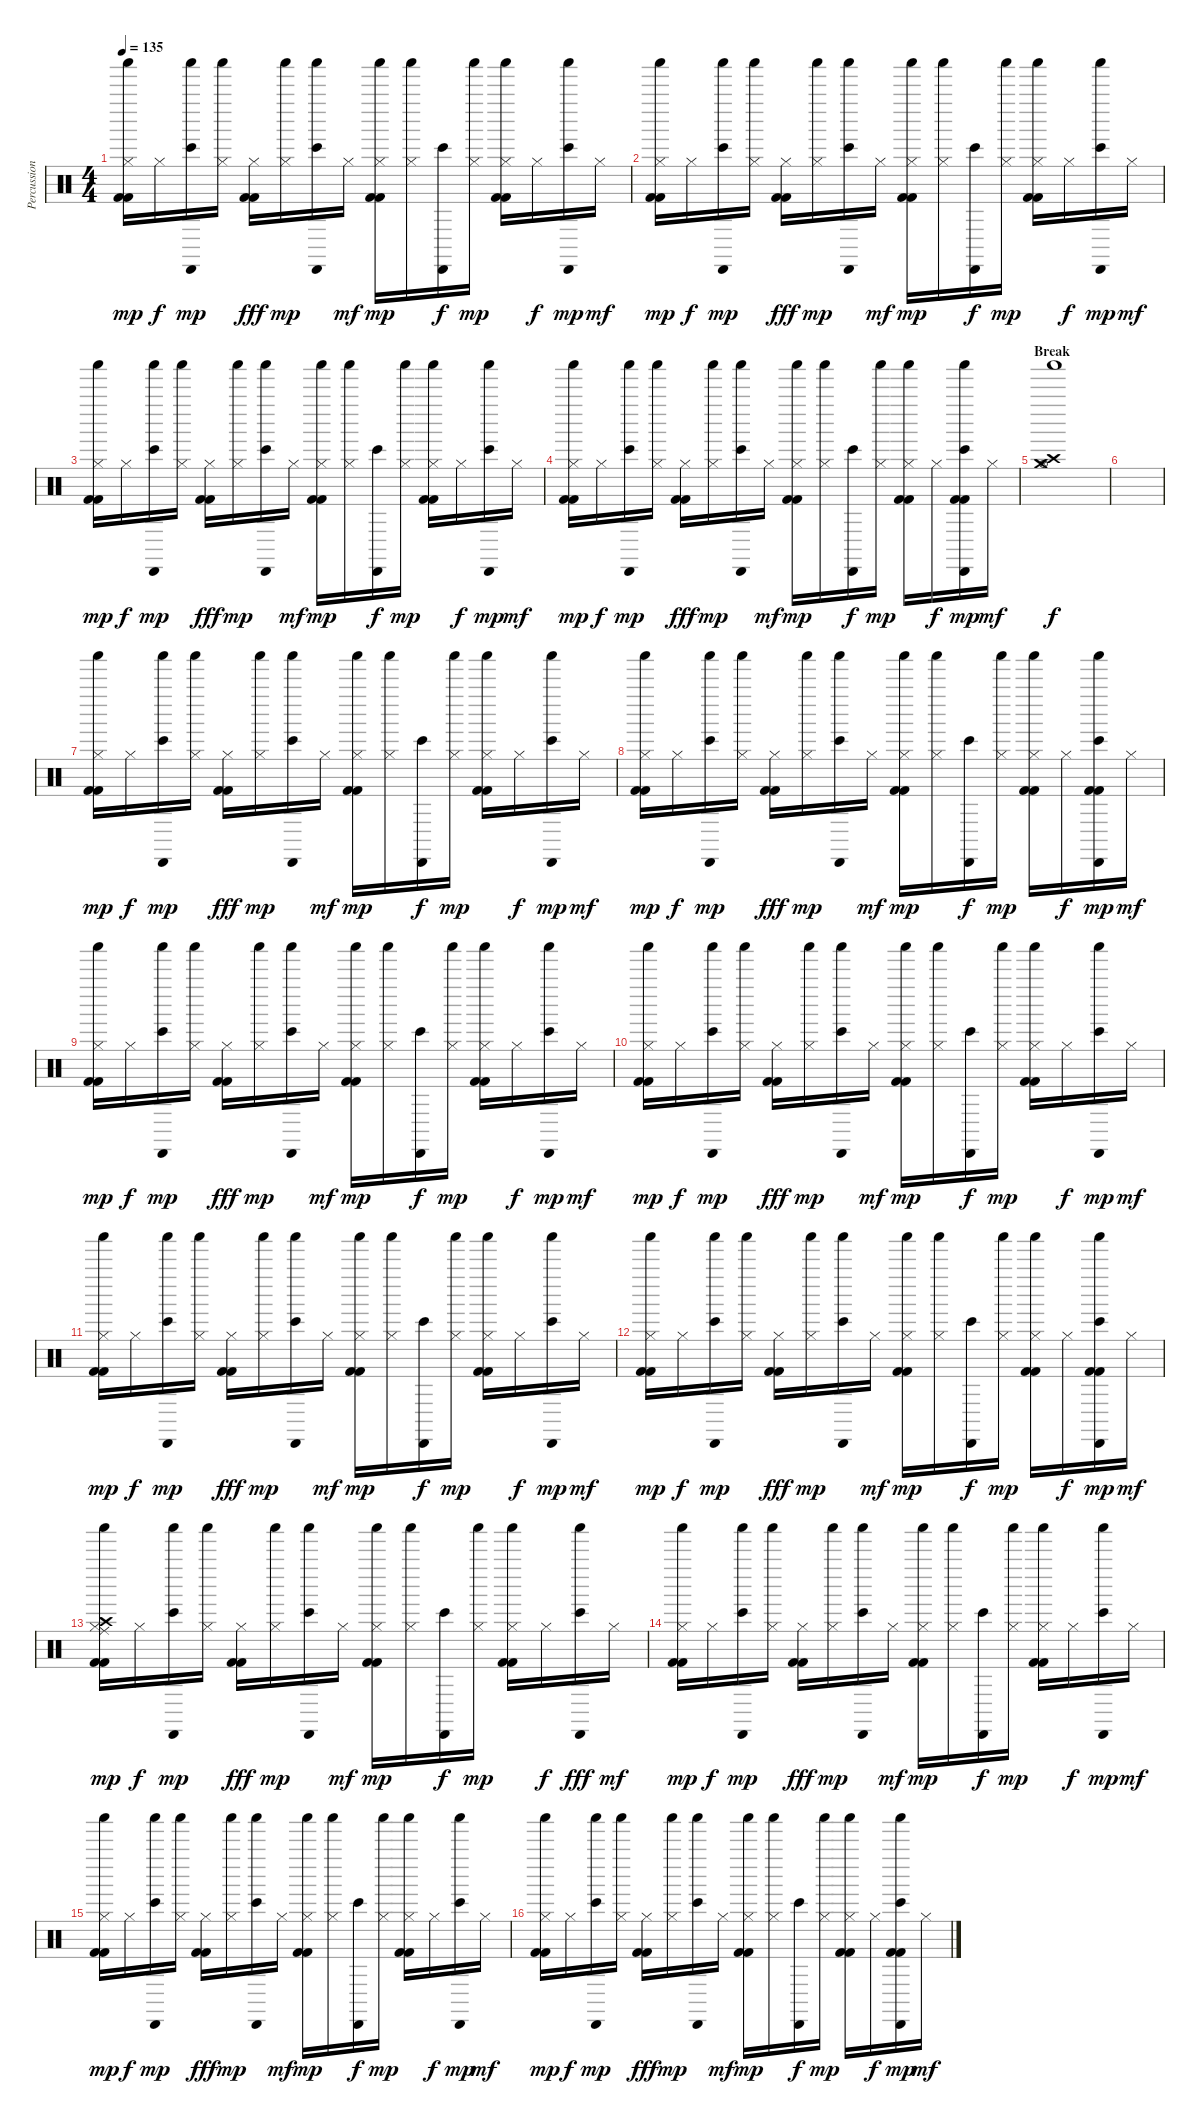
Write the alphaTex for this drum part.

\track ("Percussion" "Percussion") {instrument percussion}
\staff {score}
\articulation defaults
\ts (4 4)
\tempo 135
\clef neutral
\ks c
("Hi-Hat (closed)" "Kick (hit) 2" "Kick (hit) 2" "Shaker (hit)").16{dy mp volume 6} "Hi-Hat (closed)".16{dy f} ("Cabasa (hit)" "Bongo High (hit)" "Shaker (hit)").16{dy mp} ("Hi-Hat (closed)" "Shaker (hit)").16 ("Hi-Hat (closed)" "Kick (hit) 2" "Kick (hit) 2").16{dy fff} ("Hi-Hat (closed)" "Shaker (hit)").16{dy mp} ("Cabasa (hit)" "Bongo High (hit)" "Shaker (hit)").16 "Hi-Hat (closed)".16{dy mf} ("Hi-Hat (closed)" "Kick (hit) 2" "Kick (hit) 2" "Shaker (hit)").16{dy mp} ("Hi-Hat (closed)" "Shaker (hit)").16 ("Cabasa (hit)" "Bongo High (hit)").16{dy f} ("Hi-Hat (closed)" "Shaker (hit)").16{dy mp} ("Hi-Hat (closed)" "Kick (hit) 2" "Kick (hit) 2" "Shaker (hit)").16 "Hi-Hat (closed)".16{dy f} ("Cabasa (hit)" "Bongo High (hit)" "Shaker (hit)").16{dy mp} "Hi-Hat (closed)".16{dy mf} |
("Hi-Hat (closed)" "Kick (hit) 2" "Kick (hit) 2" "Shaker (hit)").16{dy mp} "Hi-Hat (closed)".16{dy f} ("Cabasa (hit)" "Bongo High (hit)" "Shaker (hit)").16{dy mp} ("Hi-Hat (closed)" "Shaker (hit)").16 ("Hi-Hat (closed)" "Kick (hit) 2" "Kick (hit) 2").16{dy fff} ("Hi-Hat (closed)" "Shaker (hit)").16{dy mp} ("Cabasa (hit)" "Bongo High (hit)" "Shaker (hit)").16 "Hi-Hat (closed)".16{dy mf} ("Hi-Hat (closed)" "Kick (hit) 2" "Kick (hit) 2" "Shaker (hit)").16{dy mp} ("Hi-Hat (closed)" "Shaker (hit)").16 ("Cabasa (hit)" "Bongo High (hit)").16{dy f} ("Hi-Hat (closed)" "Shaker (hit)").16{dy mp} ("Hi-Hat (closed)" "Kick (hit) 2" "Kick (hit) 2" "Shaker (hit)").16 "Hi-Hat (closed)".16{dy f} ("Cabasa (hit)" "Bongo High (hit)" "Shaker (hit)").16{dy mp} "Hi-Hat (closed)".16{dy mf} |
("Hi-Hat (closed)" "Kick (hit) 2" "Kick (hit) 2" "Shaker (hit)").16{dy mp} "Hi-Hat (closed)".16{dy f} ("Cabasa (hit)" "Bongo High (hit)" "Shaker (hit)").16{dy mp} ("Hi-Hat (closed)" "Shaker (hit)").16 ("Hi-Hat (closed)" "Kick (hit) 2" "Kick (hit) 2").16{dy fff} ("Hi-Hat (closed)" "Shaker (hit)").16{dy mp} ("Cabasa (hit)" "Bongo High (hit)" "Shaker (hit)").16 "Hi-Hat (closed)".16{dy mf} ("Hi-Hat (closed)" "Kick (hit) 2" "Kick (hit) 2" "Shaker (hit)").16{dy mp} ("Hi-Hat (closed)" "Shaker (hit)").16 ("Cabasa (hit)" "Bongo High (hit)").16{dy f} ("Hi-Hat (closed)" "Shaker (hit)").16{dy mp} ("Hi-Hat (closed)" "Kick (hit) 2" "Kick (hit) 2" "Shaker (hit)").16 "Hi-Hat (closed)".16{dy f} ("Cabasa (hit)" "Bongo High (hit)" "Shaker (hit)").16{dy mp} "Hi-Hat (closed)".16{dy mf} |
("Hi-Hat (closed)" "Kick (hit) 2" "Kick (hit) 2" "Shaker (hit)").16{dy mp} "Hi-Hat (closed)".16{dy f} ("Cabasa (hit)" "Bongo High (hit)" "Shaker (hit)").16{dy mp} ("Hi-Hat (closed)" "Shaker (hit)").16 ("Hi-Hat (closed)" "Kick (hit) 2" "Kick (hit) 2").16{dy fff} ("Hi-Hat (closed)" "Shaker (hit)").16{dy mp} ("Cabasa (hit)" "Bongo High (hit)" "Shaker (hit)").16 "Hi-Hat (closed)".16{dy mf} ("Hi-Hat (closed)" "Kick (hit) 2" "Kick (hit) 2" "Shaker (hit)").16{dy mp} ("Hi-Hat (closed)" "Shaker (hit)").16 ("Cabasa (hit)" "Bongo High (hit)").16{dy f} ("Hi-Hat (closed)" "Shaker (hit)").16{dy mp} ("Hi-Hat (closed)" "Kick (hit) 2" "Kick (hit) 2" "Shaker (hit)").16 "Hi-Hat (closed)".16{dy f} ("Cabasa (hit)" "Bongo High (hit)" "Kick (hit) 2" "Kick (hit) 2" "Shaker (hit)").16{dy mp} "Hi-Hat (closed)".16{dy mf} |
\section ("" "Break")
("Crash medium (hit)" "Crash high (hit)" "Hi-Hat (open)" "Shaker (hit)").1{dy f volume 14} |
|
("Hi-Hat (closed)" "Kick (hit) 2" "Kick (hit) 2" "Shaker (hit)").16{dy mp volume 5} "Hi-Hat (closed)".16{dy f} ("Cabasa (hit)" "Bongo High (hit)" "Shaker (hit)").16{dy mp} ("Hi-Hat (closed)" "Shaker (hit)").16 ("Hi-Hat (closed)" "Kick (hit) 2" "Kick (hit) 2").16{dy fff} ("Hi-Hat (closed)" "Shaker (hit)").16{dy mp} ("Cabasa (hit)" "Bongo High (hit)" "Shaker (hit)").16 "Hi-Hat (closed)".16{dy mf} ("Hi-Hat (closed)" "Kick (hit) 2" "Kick (hit) 2" "Shaker (hit)").16{dy mp} ("Hi-Hat (closed)" "Shaker (hit)").16 ("Cabasa (hit)" "Bongo High (hit)").16{dy f} ("Hi-Hat (closed)" "Shaker (hit)").16{dy mp} ("Hi-Hat (closed)" "Kick (hit) 2" "Kick (hit) 2" "Shaker (hit)").16 "Hi-Hat (closed)".16{dy f} ("Cabasa (hit)" "Bongo High (hit)" "Shaker (hit)").16{dy mp} "Hi-Hat (closed)".16{dy mf} |
("Hi-Hat (closed)" "Kick (hit) 2" "Kick (hit) 2" "Shaker (hit)").16{dy mp} "Hi-Hat (closed)".16{dy f} ("Cabasa (hit)" "Bongo High (hit)" "Shaker (hit)").16{dy mp} ("Hi-Hat (closed)" "Shaker (hit)").16 ("Hi-Hat (closed)" "Kick (hit) 2" "Kick (hit) 2").16{dy fff} ("Hi-Hat (closed)" "Shaker (hit)").16{dy mp} ("Cabasa (hit)" "Bongo High (hit)" "Shaker (hit)").16 "Hi-Hat (closed)".16{dy mf} ("Hi-Hat (closed)" "Kick (hit) 2" "Kick (hit) 2" "Shaker (hit)").16{dy mp} ("Hi-Hat (closed)" "Shaker (hit)").16 ("Cabasa (hit)" "Bongo High (hit)").16{dy f} ("Hi-Hat (closed)" "Shaker (hit)").16{dy mp} ("Hi-Hat (closed)" "Kick (hit) 2" "Kick (hit) 2" "Shaker (hit)").16 "Hi-Hat (closed)".16{dy f} ("Cabasa (hit)" "Bongo High (hit)" "Kick (hit) 2" "Kick (hit) 2" "Shaker (hit)").16{dy mp} "Hi-Hat (closed)".16{dy mf} |
("Hi-Hat (closed)" "Kick (hit) 2" "Kick (hit) 2" "Shaker (hit)").16{dy mp} "Hi-Hat (closed)".16{dy f} ("Cabasa (hit)" "Bongo High (hit)" "Shaker (hit)").16{dy mp} ("Hi-Hat (closed)" "Shaker (hit)").16 ("Hi-Hat (closed)" "Kick (hit) 2" "Kick (hit) 2").16{dy fff} ("Hi-Hat (closed)" "Shaker (hit)").16{dy mp} ("Cabasa (hit)" "Bongo High (hit)" "Shaker (hit)").16 "Hi-Hat (closed)".16{dy mf} ("Hi-Hat (closed)" "Kick (hit) 2" "Kick (hit) 2" "Shaker (hit)").16{dy mp} ("Hi-Hat (closed)" "Shaker (hit)").16 ("Cabasa (hit)" "Bongo High (hit)").16{dy f} ("Hi-Hat (closed)" "Shaker (hit)").16{dy mp} ("Hi-Hat (closed)" "Kick (hit) 2" "Kick (hit) 2" "Shaker (hit)").16 "Hi-Hat (closed)".16{dy f} ("Cabasa (hit)" "Bongo High (hit)" "Shaker (hit)").16{dy mp} "Hi-Hat (closed)".16{dy mf} |
("Hi-Hat (closed)" "Kick (hit) 2" "Kick (hit) 2" "Shaker (hit)").16{dy mp} "Hi-Hat (closed)".16{dy f} ("Cabasa (hit)" "Bongo High (hit)" "Shaker (hit)").16{dy mp} ("Hi-Hat (closed)" "Shaker (hit)").16 ("Hi-Hat (closed)" "Kick (hit) 2" "Kick (hit) 2").16{dy fff} ("Hi-Hat (closed)" "Shaker (hit)").16{dy mp} ("Cabasa (hit)" "Bongo High (hit)" "Shaker (hit)").16 "Hi-Hat (closed)".16{dy mf} ("Hi-Hat (closed)" "Kick (hit) 2" "Kick (hit) 2" "Shaker (hit)").16{dy mp} ("Hi-Hat (closed)" "Shaker (hit)").16 ("Cabasa (hit)" "Bongo High (hit)").16{dy f} ("Hi-Hat (closed)" "Shaker (hit)").16{dy mp} ("Hi-Hat (closed)" "Kick (hit) 2" "Kick (hit) 2" "Shaker (hit)").16 "Hi-Hat (closed)".16{dy f} ("Cabasa (hit)" "Bongo High (hit)" "Shaker (hit)").16{dy mp} "Hi-Hat (closed)".16{dy mf} |
("Hi-Hat (closed)" "Kick (hit) 2" "Kick (hit) 2" "Shaker (hit)").16{dy mp volume 8} "Hi-Hat (closed)".16{dy f} ("Cabasa (hit)" "Bongo High (hit)" "Shaker (hit)").16{dy mp} ("Hi-Hat (closed)" "Shaker (hit)").16 ("Hi-Hat (closed)" "Kick (hit) 2" "Kick (hit) 2").16{dy fff} ("Hi-Hat (closed)" "Shaker (hit)").16{dy mp} ("Cabasa (hit)" "Bongo High (hit)" "Shaker (hit)").16 "Hi-Hat (closed)".16{dy mf} ("Hi-Hat (closed)" "Kick (hit) 2" "Kick (hit) 2" "Shaker (hit)").16{dy mp} ("Hi-Hat (closed)" "Shaker (hit)").16 ("Cabasa (hit)" "Bongo High (hit)").16{dy f} ("Hi-Hat (closed)" "Shaker (hit)").16{dy mp} ("Hi-Hat (closed)" "Kick (hit) 2" "Kick (hit) 2" "Shaker (hit)").16 "Hi-Hat (closed)".16{dy f} ("Cabasa (hit)" "Bongo High (hit)" "Shaker (hit)").16{dy mp} "Hi-Hat (closed)".16{dy mf} |
("Hi-Hat (closed)" "Kick (hit) 2" "Kick (hit) 2" "Shaker (hit)").16{dy mp} "Hi-Hat (closed)".16{dy f} ("Cabasa (hit)" "Bongo High (hit)" "Shaker (hit)").16{dy mp} ("Hi-Hat (closed)" "Shaker (hit)").16 ("Hi-Hat (closed)" "Kick (hit) 2" "Kick (hit) 2").16{dy fff} ("Hi-Hat (closed)" "Shaker (hit)").16{dy mp} ("Cabasa (hit)" "Bongo High (hit)" "Shaker (hit)").16 "Hi-Hat (closed)".16{dy mf} ("Hi-Hat (closed)" "Kick (hit) 2" "Kick (hit) 2" "Shaker (hit)").16{dy mp} ("Hi-Hat (closed)" "Shaker (hit)").16 ("Cabasa (hit)" "Bongo High (hit)").16{dy f} ("Hi-Hat (closed)" "Shaker (hit)").16{dy mp} ("Hi-Hat (closed)" "Kick (hit) 2" "Kick (hit) 2" "Shaker (hit)").16 "Hi-Hat (closed)".16{dy f} ("Cabasa (hit)" "Bongo High (hit)" "Kick (hit) 2" "Kick (hit) 2" "Shaker (hit)").16{dy mp} "Hi-Hat (closed)".16{dy mf} |
("Ride (middle)" "Hi-Hat (closed)" "Crash high (hit)" "Kick (hit) 2" "Kick (hit) 2" "Shaker (hit)").16{dy mp} "Hi-Hat (closed)".16{dy f} ("Cabasa (hit)" "Bongo High (hit)" "Shaker (hit)").16{dy mp} ("Hi-Hat (closed)" "Shaker (hit)").16 ("Hi-Hat (closed)" "Kick (hit) 2" "Kick (hit) 2").16{dy fff} ("Hi-Hat (closed)" "Shaker (hit)").16{dy mp} ("Cabasa (hit)" "Bongo High (hit)" "Shaker (hit)").16 "Hi-Hat (closed)".16{dy mf} ("Hi-Hat (closed)" "Kick (hit) 2" "Kick (hit) 2" "Shaker (hit)").16{dy mp} ("Hi-Hat (closed)" "Shaker (hit)").16 ("Cabasa (hit)" "Bongo High (hit)").16{dy f} ("Hi-Hat (closed)" "Shaker (hit)").16{dy mp} ("Hi-Hat (closed)" "Kick (hit) 2" "Kick (hit) 2" "Shaker (hit)").16 "Hi-Hat (closed)".16{dy f} ("Cabasa (hit)" "Bongo High (hit)" "Shaker (hit)").16{dy fff} "Hi-Hat (closed)".16{dy mf} |
("Hi-Hat (closed)" "Kick (hit) 2" "Kick (hit) 2" "Shaker (hit)").16{dy mp} "Hi-Hat (closed)".16{dy f} ("Cabasa (hit)" "Bongo High (hit)" "Shaker (hit)").16{dy mp} ("Hi-Hat (closed)" "Shaker (hit)").16 ("Hi-Hat (closed)" "Kick (hit) 2" "Kick (hit) 2").16{dy fff} ("Hi-Hat (closed)" "Shaker (hit)").16{dy mp} ("Cabasa (hit)" "Bongo High (hit)" "Shaker (hit)").16 "Hi-Hat (closed)".16{dy mf} ("Hi-Hat (closed)" "Kick (hit) 2" "Kick (hit) 2" "Shaker (hit)").16{dy mp} ("Hi-Hat (closed)" "Shaker (hit)").16 ("Cabasa (hit)" "Bongo High (hit)").16{dy f} ("Hi-Hat (closed)" "Shaker (hit)").16{dy mp} ("Hi-Hat (closed)" "Kick (hit) 2" "Kick (hit) 2" "Shaker (hit)").16 "Hi-Hat (closed)".16{dy f} ("Cabasa (hit)" "Bongo High (hit)" "Shaker (hit)").16{dy mp} "Hi-Hat (closed)".16{dy mf} |
("Hi-Hat (closed)" "Kick (hit) 2" "Kick (hit) 2" "Shaker (hit)").16{dy mp volume 10} "Hi-Hat (closed)".16{dy f} ("Cabasa (hit)" "Bongo High (hit)" "Shaker (hit)").16{dy mp} ("Hi-Hat (closed)" "Shaker (hit)").16 ("Hi-Hat (closed)" "Kick (hit) 2" "Kick (hit) 2").16{dy fff} ("Hi-Hat (closed)" "Shaker (hit)").16{dy mp} ("Cabasa (hit)" "Bongo High (hit)" "Shaker (hit)").16 "Hi-Hat (closed)".16{dy mf} ("Hi-Hat (closed)" "Kick (hit) 2" "Kick (hit) 2" "Shaker (hit)").16{dy mp} ("Hi-Hat (closed)" "Shaker (hit)").16 ("Cabasa (hit)" "Bongo High (hit)").16{dy f} ("Hi-Hat (closed)" "Shaker (hit)").16{dy mp} ("Hi-Hat (closed)" "Kick (hit) 2" "Kick (hit) 2" "Shaker (hit)").16 "Hi-Hat (closed)".16{dy f} ("Cabasa (hit)" "Bongo High (hit)" "Shaker (hit)").16{dy mp} "Hi-Hat (closed)".16{dy mf} |
("Hi-Hat (closed)" "Kick (hit) 2" "Kick (hit) 2" "Shaker (hit)").16{dy mp} "Hi-Hat (closed)".16{dy f} ("Cabasa (hit)" "Bongo High (hit)" "Shaker (hit)").16{dy mp} ("Hi-Hat (closed)" "Shaker (hit)").16 ("Hi-Hat (closed)" "Kick (hit) 2" "Kick (hit) 2").16{dy fff} ("Hi-Hat (closed)" "Shaker (hit)").16{dy mp} ("Cabasa (hit)" "Bongo High (hit)" "Shaker (hit)").16 "Hi-Hat (closed)".16{dy mf} ("Hi-Hat (closed)" "Kick (hit) 2" "Kick (hit) 2" "Shaker (hit)").16{dy mp} ("Hi-Hat (closed)" "Shaker (hit)").16 ("Cabasa (hit)" "Bongo High (hit)").16{dy f} ("Hi-Hat (closed)" "Shaker (hit)").16{dy mp} ("Hi-Hat (closed)" "Kick (hit) 2" "Kick (hit) 2" "Shaker (hit)").16 "Hi-Hat (closed)".16{dy f} ("Cabasa (hit)" "Bongo High (hit)" "Kick (hit) 2" "Kick (hit) 2" "Shaker (hit)").16{dy mp} "Hi-Hat (closed)".16{dy mf}
